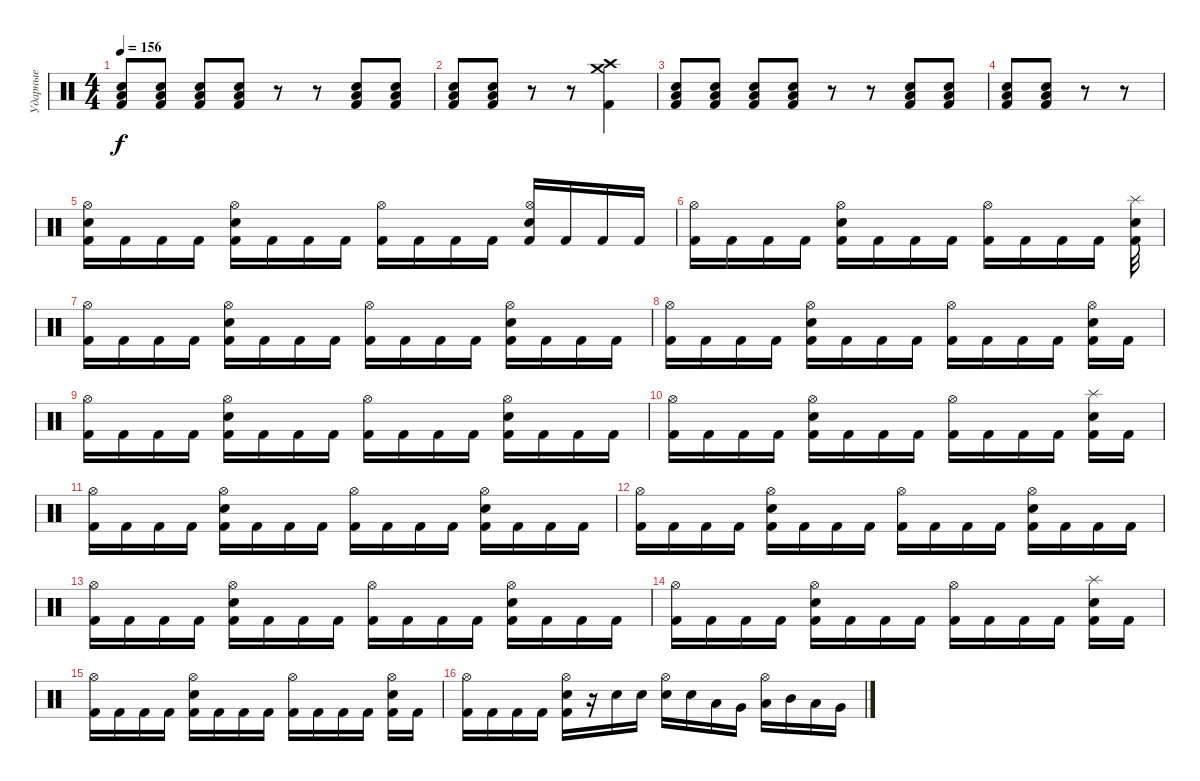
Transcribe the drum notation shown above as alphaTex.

\track ("Ударные" "Ударные") {instrument percussion}
\staff {score}
\articulation defaults
\ts (4 4)
\tempo 156
\clef neutral
\ks c
("Kick (hit) 2" "Electric Snare (hit)" "Low Tom (hit)").8{dy f} ("Kick (hit) 2" "Electric Snare (hit)" "Low Tom (hit)").8 ("Kick (hit) 2" "Electric Snare (hit)" "Low Tom (hit)").8 ("Kick (hit) 2" "Electric Snare (hit)" "Low Tom (hit)").8 r.8 r.8 ("Kick (hit) 2" "Electric Snare (hit)" "Low Tom (hit)").8 ("Kick (hit) 2" "Electric Snare (hit)" "Low Tom (hit)").8 |
("Kick (hit) 2" "Electric Snare (hit)" "Low Tom (hit)").8 ("Kick (hit) 2" "Electric Snare (hit)" "Low Tom (hit)").8 r.8 r.8 ("Kick (hit) 2" "Crash medium (hit)" "Crash high (hit)").4 |
("Kick (hit) 2" "Electric Snare (hit)" "Low Tom (hit)").8 ("Kick (hit) 2" "Electric Snare (hit)" "Low Tom (hit)").8 ("Kick (hit) 2" "Electric Snare (hit)" "Low Tom (hit)").8 ("Kick (hit) 2" "Electric Snare (hit)" "Low Tom (hit)").8 r.8 r.8 ("Kick (hit) 2" "Electric Snare (hit)" "Low Tom (hit)").8 ("Kick (hit) 2" "Electric Snare (hit)" "Low Tom (hit)").8 |
("Kick (hit) 2" "Electric Snare (hit)" "Low Tom (hit)").8 ("Kick (hit) 2" "Electric Snare (hit)" "Low Tom (hit)").8 r.8 r.8 |
("Kick (hit) 2" "Electric Snare (hit)" "Hi-Hat (open)").16 "Kick (hit) 2".16 "Kick (hit) 2".16 "Kick (hit) 2".16 ("Kick (hit) 2" "Electric Snare (hit)" "Hi-Hat (open)").16 "Kick (hit) 2".16 "Kick (hit) 2".16 "Kick (hit) 2".16 ("Kick (hit) 2" "Hi-Hat (open)").16 "Kick (hit) 2".16 "Kick (hit) 2".16 "Kick (hit) 2".16 ("Kick (hit) 2" "Snare (hit) 2" "Hi-Hat (open)").16 "Kick (hit) 2".16 "Kick (hit) 2".16 "Kick (hit) 2".16 |
("Kick (hit) 2" "Hi-Hat (open)").16 "Kick (hit) 2".16 "Kick (hit) 2".16 "Kick (hit) 2".16 ("Kick (hit) 2" "Electric Snare (hit)" "Hi-Hat (open)").16 "Kick (hit) 2".16 "Kick (hit) 2".16 "Kick (hit) 2".16 ("Kick (hit) 2" "Hi-Hat (open)").16 "Kick (hit) 2".16 "Kick (hit) 2".16 "Kick (hit) 2".16 ("Kick (hit) 2" "Electric Snare (hit)" "Splash (hit)").32 |
("Kick (hit) 2" "Hi-Hat (open)").16 "Kick (hit) 2".16 "Kick (hit) 2".16 "Kick (hit) 2".16 ("Kick (hit) 2" "Electric Snare (hit)" "Hi-Hat (open)").16 "Kick (hit) 2".16 "Kick (hit) 2".16 "Kick (hit) 2".16 ("Kick (hit) 2" "Hi-Hat (open)").16 "Kick (hit) 2".16 "Kick (hit) 2".16 "Kick (hit) 2".16 ("Kick (hit) 2" "Electric Snare (hit)" "Hi-Hat (open)").16 "Kick (hit) 2".16 "Kick (hit) 2".16 "Kick (hit) 2".16 |
("Kick (hit) 2" "Hi-Hat (open)").16 "Kick (hit) 2".16 "Kick (hit) 2".16 "Kick (hit) 2".16 ("Kick (hit) 2" "Electric Snare (hit)" "Hi-Hat (open)").16 "Kick (hit) 2".16 "Kick (hit) 2".16 "Kick (hit) 2".16 ("Kick (hit) 2" "Hi-Hat (open)").16 "Kick (hit) 2".16 "Kick (hit) 2".16 "Kick (hit) 2".16 ("Kick (hit) 2" "Electric Snare (hit)" "Hi-Hat (open)").16 "Kick (hit) 2".16 |
("Kick (hit) 2" "Hi-Hat (open)").16 "Kick (hit) 2".16 "Kick (hit) 2".16 "Kick (hit) 2".16 ("Kick (hit) 2" "Electric Snare (hit)" "Hi-Hat (open)").16 "Kick (hit) 2".16 "Kick (hit) 2".16 "Kick (hit) 2".16 ("Kick (hit) 2" "Hi-Hat (open)").16 "Kick (hit) 2".16 "Kick (hit) 2".16 "Kick (hit) 2".16 ("Kick (hit) 2" "Electric Snare (hit)" "Hi-Hat (open)").16 "Kick (hit) 2".16 "Kick (hit) 2".16 "Kick (hit) 2".16 |
("Kick (hit) 2" "Hi-Hat (open)").16 "Kick (hit) 2".16 "Kick (hit) 2".16 "Kick (hit) 2".16 ("Kick (hit) 2" "Electric Snare (hit)" "Hi-Hat (open)").16 "Kick (hit) 2".16 "Kick (hit) 2".16 "Kick (hit) 2".16 ("Kick (hit) 2" "Hi-Hat (open)").16 "Kick (hit) 2".16 "Kick (hit) 2".16 "Kick (hit) 2".16 ("Kick (hit) 2" "Electric Snare (hit)" "Splash (hit)").16 "Kick (hit) 2".16 |
("Kick (hit) 2" "Hi-Hat (open)").16 "Kick (hit) 2".16 "Kick (hit) 2".16 "Kick (hit) 2".16 ("Kick (hit) 2" "Electric Snare (hit)" "Hi-Hat (open)").16 "Kick (hit) 2".16 "Kick (hit) 2".16 "Kick (hit) 2".16 ("Kick (hit) 2" "Hi-Hat (open)").16 "Kick (hit) 2".16 "Kick (hit) 2".16 "Kick (hit) 2".16 ("Kick (hit) 2" "Electric Snare (hit)" "Hi-Hat (open)").16 "Kick (hit) 2".16 "Kick (hit) 2".16 "Kick (hit) 2".16 |
("Kick (hit) 2" "Hi-Hat (open)").16 "Kick (hit) 2".16 "Kick (hit) 2".16 "Kick (hit) 2".16 ("Kick (hit) 2" "Electric Snare (hit)" "Hi-Hat (open)").16 "Kick (hit) 2".16 "Kick (hit) 2".16 "Kick (hit) 2".16 ("Kick (hit) 2" "Hi-Hat (open)").16 "Kick (hit) 2".16 "Kick (hit) 2".16 "Kick (hit) 2".16 ("Kick (hit) 2" "Electric Snare (hit)" "Hi-Hat (open)").16 "Kick (hit) 2".16 "Kick (hit) 2".16 "Kick (hit) 2".16 |
("Kick (hit) 2" "Hi-Hat (open)").16 "Kick (hit) 2".16 "Kick (hit) 2".16 "Kick (hit) 2".16 ("Kick (hit) 2" "Electric Snare (hit)" "Hi-Hat (open)").16 "Kick (hit) 2".16 "Kick (hit) 2".16 "Kick (hit) 2".16 ("Kick (hit) 2" "Hi-Hat (open)").16 "Kick (hit) 2".16 "Kick (hit) 2".16 "Kick (hit) 2".16 ("Kick (hit) 2" "Electric Snare (hit)" "Hi-Hat (open)").16 "Kick (hit) 2".16 "Kick (hit) 2".16 "Kick (hit) 2".16 |
("Kick (hit) 2" "Hi-Hat (open)").16 "Kick (hit) 2".16 "Kick (hit) 2".16 "Kick (hit) 2".16 ("Kick (hit) 2" "Electric Snare (hit)" "Hi-Hat (open)").16 "Kick (hit) 2".16 "Kick (hit) 2".16 "Kick (hit) 2".16 ("Kick (hit) 2" "Hi-Hat (open)").16 "Kick (hit) 2".16 "Kick (hit) 2".16 "Kick (hit) 2".16 ("Kick (hit) 2" "Electric Snare (hit)" "Splash (hit)").16 "Kick (hit) 2".16 |
("Kick (hit) 2" "Hi-Hat (open)").16 "Kick (hit) 2".16 "Kick (hit) 2".16 "Kick (hit) 2".16 ("Kick (hit) 2" "Electric Snare (hit)" "Hi-Hat (open)").16 "Kick (hit) 2".16 "Kick (hit) 2".16 "Kick (hit) 2".16 ("Kick (hit) 2" "Hi-Hat (open)").16 "Kick (hit) 2".16 "Kick (hit) 2".16 "Kick (hit) 2".16 ("Kick (hit) 2" "Electric Snare (hit)" "Hi-Hat (open)").16 "Kick (hit) 2".16 |
("Kick (hit) 2" "Hi-Hat (open)").16 "Kick (hit) 2".16 "Kick (hit) 2".16 "Kick (hit) 2".16 ("Kick (hit) 2" "Electric Snare (hit)" "Hi-Hat (open)").16 r.16 "Snare (hit) 2".16 "Electric Snare (hit)".16 ("Snare (hit) 2" "Hi-Hat (open)").16 "Electric Snare (hit)".16 "Low Tom (hit)".16 "Very Low Tom (hit)".16 ("Low Tom (hit)" "Hi-Hat (open)").16 "Mid Tom (hit)".16 "Low Tom (hit)".16 "Very Low Tom (hit)".16
